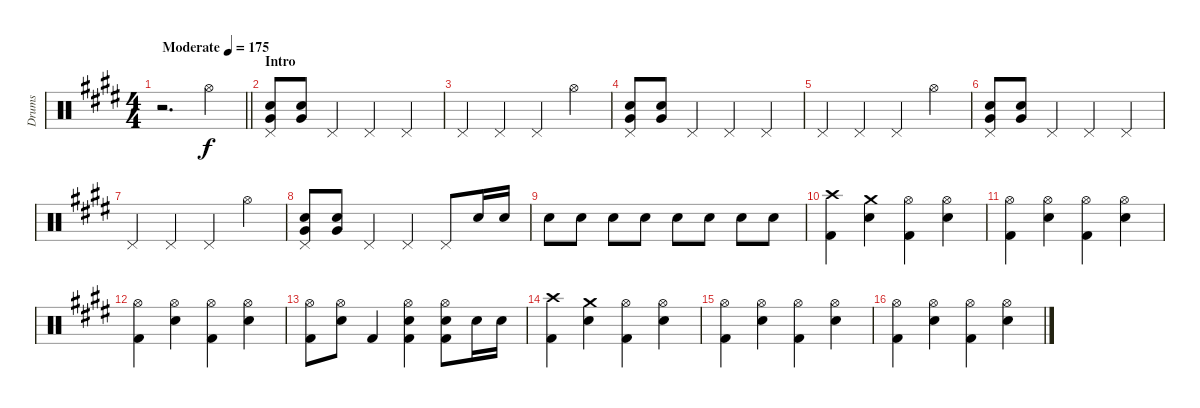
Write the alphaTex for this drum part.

\track ("Drums" "Drums") {instrument percussion}
\staff {score}
\articulation defaults
\ts (4 4)
\tempo (175 "Moderate")
\clef neutral
\barLineRight lightlight
\ks e
r.2{d dy f} "Hi-Hat (open)".4 |
\section ("" "Intro")
("Electric Snare (hit)" "Very Low Tom (hit)" "Pedal Hi-Hat (hit)").8 ("Electric Snare (hit)" "Very Low Tom (hit)").8 "Pedal Hi-Hat (hit)".4 "Pedal Hi-Hat (hit)".4 "Pedal Hi-Hat (hit)".4 |
"Pedal Hi-Hat (hit)".4 "Pedal Hi-Hat (hit)".4 "Pedal Hi-Hat (hit)".4 "Hi-Hat (open)".4 |
("Electric Snare (hit)" "Very Low Tom (hit)" "Pedal Hi-Hat (hit)").8 ("Electric Snare (hit)" "Very Low Tom (hit)").8 "Pedal Hi-Hat (hit)".4 "Pedal Hi-Hat (hit)".4 "Pedal Hi-Hat (hit)".4 |
"Pedal Hi-Hat (hit)".4 "Pedal Hi-Hat (hit)".4 "Pedal Hi-Hat (hit)".4 "Hi-Hat (open)".4 |
("Electric Snare (hit)" "Very Low Tom (hit)" "Pedal Hi-Hat (hit)").8 ("Electric Snare (hit)" "Very Low Tom (hit)").8 "Pedal Hi-Hat (hit)".4 "Pedal Hi-Hat (hit)".4 "Pedal Hi-Hat (hit)".4 |
"Pedal Hi-Hat (hit)".4 "Pedal Hi-Hat (hit)".4 "Pedal Hi-Hat (hit)".4 "Hi-Hat (open)".4 |
("Electric Snare (hit)" "Very Low Tom (hit)" "Pedal Hi-Hat (hit)").8 ("Electric Snare (hit)" "Very Low Tom (hit)").8 "Pedal Hi-Hat (hit)".4 "Pedal Hi-Hat (hit)".4 "Pedal Hi-Hat (hit)".8 "Electric Snare (hit)".16 "Electric Snare (hit)".16 |
"Electric Snare (hit)".8 "Electric Snare (hit)".8 "Electric Snare (hit)".8 "Electric Snare (hit)".8 "Electric Snare (hit)".8 "Electric Snare (hit)".8 "Electric Snare (hit)".8 "Electric Snare (hit)".8 |
("Crash high (hit)" "Kick (hit) 2").4 ("Crash medium (hit)" "Electric Snare (hit)").4 ("Hi-Hat (open)" "Kick (hit) 2").4 ("Hi-Hat (open)" "Electric Snare (hit)").4 |
("Hi-Hat (open)" "Kick (hit) 2").4 ("Hi-Hat (open)" "Electric Snare (hit)").4 ("Hi-Hat (open)" "Kick (hit) 2").4 ("Hi-Hat (open)" "Electric Snare (hit)").4 |
("Hi-Hat (open)" "Kick (hit) 2").4 ("Hi-Hat (open)" "Electric Snare (hit)").4 ("Hi-Hat (open)" "Kick (hit) 2").4 ("Hi-Hat (open)" "Electric Snare (hit)").4 |
("Hi-Hat (open)" "Kick (hit) 2").8 ("Hi-Hat (open)" "Electric Snare (hit)").8 "Kick (hit) 2".4 ("Hi-Hat (open)" "Electric Snare (hit)" "Kick (hit) 2").4 ("Hi-Hat (open)" "Electric Snare (hit)" "Kick (hit) 2").8 "Electric Snare (hit)".16 "Electric Snare (hit)".16 |
("Crash high (hit)" "Kick (hit) 2").4 ("Crash medium (hit)" "Electric Snare (hit)").4 ("Hi-Hat (open)" "Kick (hit) 2").4 ("Hi-Hat (open)" "Electric Snare (hit)").4 |
("Hi-Hat (open)" "Kick (hit) 2").4 ("Hi-Hat (open)" "Electric Snare (hit)").4 ("Hi-Hat (open)" "Kick (hit) 2").4 ("Hi-Hat (open)" "Electric Snare (hit)").4 |
("Hi-Hat (open)" "Kick (hit) 2").4 ("Hi-Hat (open)" "Electric Snare (hit)").4 ("Hi-Hat (open)" "Kick (hit) 2").4 ("Hi-Hat (open)" "Electric Snare (hit)").4
